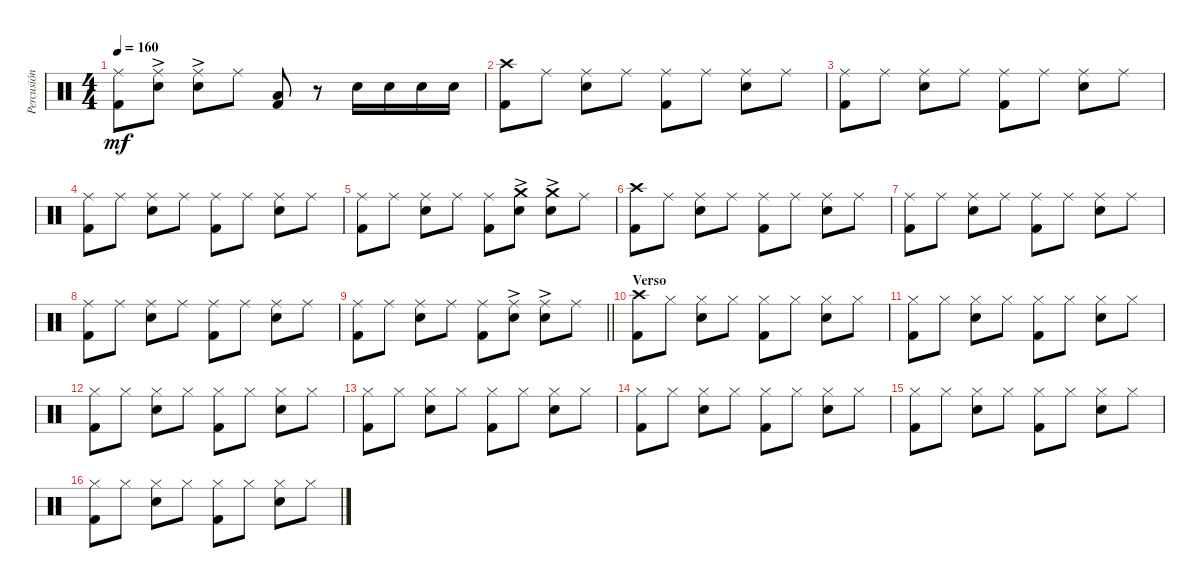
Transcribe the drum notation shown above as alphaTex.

\track ("Percusión" "Percusión") {instrument percussion}
\staff {score}
\articulation defaults
\ts (4 4)
\tempo 160
\clef neutral
\ks c
("Ride (middle)" "Kick (hit) 2").8{dy mf} ("Ride (middle)" "Electric Snare (hit)"{ac}).8 ("Ride (middle)" "Electric Snare (hit)"{ac}).8 "Ride (middle)".8 ("Low Floor Tom (hit)" "Kick (hit) 2").8 r.8 "Electric Snare (hit)".16 "Electric Snare (hit)".16 "Electric Snare (hit)".16 "Electric Snare (hit)".16 |
("Crash high (hit)" "Kick (hit) 2").8 "Ride (middle)".8 ("Ride (middle)" "Electric Snare (hit)").8 "Ride (middle)".8 ("Ride (middle)" "Kick (hit) 2").8 "Ride (middle)".8 ("Ride (middle)" "Electric Snare (hit)").8 "Ride (middle)".8 |
("Ride (middle)" "Kick (hit) 2").8 "Ride (middle)".8 ("Ride (middle)" "Electric Snare (hit)").8 "Ride (middle)".8 ("Ride (middle)" "Kick (hit) 2").8 "Ride (middle)".8 ("Ride (middle)" "Electric Snare (hit)").8 "Ride (middle)".8 |
("Ride (middle)" "Kick (hit) 2").8 "Ride (middle)".8 ("Ride (middle)" "Electric Snare (hit)").8 "Ride (middle)".8 ("Ride (middle)" "Kick (hit) 2").8 "Ride (middle)".8 ("Ride (middle)" "Electric Snare (hit)").8 "Ride (middle)".8 |
("Ride (middle)" "Kick (hit) 2").8 "Ride (middle)".8 ("Ride (middle)" "Electric Snare (hit)").8 "Ride (middle)".8 ("Ride (middle)" "Kick (hit) 2").8 ("Crash medium (hit)" "Electric Snare (hit)"{ac}).8 ("Crash medium (hit)" "Electric Snare (hit)"{ac}).8 "Ride (middle)".8 |
("Crash high (hit)" "Kick (hit) 2").8 "Ride (middle)".8 ("Ride (middle)" "Electric Snare (hit)").8 "Ride (middle)".8 ("Ride (middle)" "Kick (hit) 2").8 "Ride (middle)".8 ("Ride (middle)" "Electric Snare (hit)").8 "Ride (middle)".8 |
("Ride (middle)" "Kick (hit) 2").8 "Ride (middle)".8 ("Ride (middle)" "Electric Snare (hit)").8 "Ride (middle)".8 ("Ride (middle)" "Kick (hit) 2").8 "Ride (middle)".8 ("Ride (middle)" "Electric Snare (hit)").8 "Ride (middle)".8 |
("Ride (middle)" "Kick (hit) 2").8 "Ride (middle)".8 ("Ride (middle)" "Electric Snare (hit)").8 "Ride (middle)".8 ("Ride (middle)" "Kick (hit) 2").8 "Ride (middle)".8 ("Ride (middle)" "Electric Snare (hit)").8 "Ride (middle)".8 |
\barLineRight lightlight
("Ride (middle)" "Kick (hit) 2").8 "Ride (middle)".8 ("Ride (middle)" "Electric Snare (hit)").8 "Ride (middle)".8 ("Ride (middle)" "Kick (hit) 2").8 ("Ride (middle)" "Electric Snare (hit)"{ac}).8 ("Ride (middle)" "Electric Snare (hit)"{ac}).8 "Ride (middle)".8 |
\section ("" "Verso")
("Crash high (hit)" "Kick (hit) 2").8 "Hi-Hat (closed)".8 ("Hi-Hat (closed)" "Electric Snare (hit)").8 "Hi-Hat (closed)".8 ("Hi-Hat (closed)" "Kick (hit) 2").8 "Hi-Hat (closed)".8 ("Hi-Hat (closed)" "Electric Snare (hit)").8 "Hi-Hat (closed)".8 |
("Hi-Hat (closed)" "Kick (hit) 2").8 "Hi-Hat (closed)".8 ("Hi-Hat (closed)" "Electric Snare (hit)").8 "Hi-Hat (closed)".8 ("Hi-Hat (closed)" "Kick (hit) 2").8 "Hi-Hat (closed)".8 ("Hi-Hat (closed)" "Electric Snare (hit)").8 "Hi-Hat (closed)".8 |
("Hi-Hat (closed)" "Kick (hit) 2").8 "Hi-Hat (closed)".8 ("Hi-Hat (closed)" "Electric Snare (hit)").8 "Hi-Hat (closed)".8 ("Hi-Hat (closed)" "Kick (hit) 2").8 "Hi-Hat (closed)".8 ("Hi-Hat (closed)" "Electric Snare (hit)").8 "Hi-Hat (closed)".8 |
("Hi-Hat (closed)" "Kick (hit) 2").8 "Hi-Hat (closed)".8 ("Hi-Hat (closed)" "Electric Snare (hit)").8 "Hi-Hat (closed)".8 ("Hi-Hat (closed)" "Kick (hit) 2").8 "Hi-Hat (closed)".8 ("Hi-Hat (closed)" "Electric Snare (hit)").8 "Hi-Hat (closed)".8 |
("Hi-Hat (closed)" "Kick (hit) 2").8 "Hi-Hat (closed)".8 ("Hi-Hat (closed)" "Electric Snare (hit)").8 "Hi-Hat (closed)".8 ("Hi-Hat (closed)" "Kick (hit) 2").8 "Hi-Hat (closed)".8 ("Hi-Hat (closed)" "Electric Snare (hit)").8 "Hi-Hat (closed)".8 |
("Hi-Hat (closed)" "Kick (hit) 2").8 "Hi-Hat (closed)".8 ("Hi-Hat (closed)" "Electric Snare (hit)").8 "Hi-Hat (closed)".8 ("Hi-Hat (closed)" "Kick (hit) 2").8 "Hi-Hat (closed)".8 ("Hi-Hat (closed)" "Electric Snare (hit)").8 "Hi-Hat (closed)".8 |
("Hi-Hat (closed)" "Kick (hit) 2").8 "Hi-Hat (closed)".8 ("Hi-Hat (closed)" "Electric Snare (hit)").8 "Hi-Hat (closed)".8 ("Hi-Hat (closed)" "Kick (hit) 2").8 "Hi-Hat (closed)".8 ("Hi-Hat (closed)" "Electric Snare (hit)").8 "Hi-Hat (closed)".8
